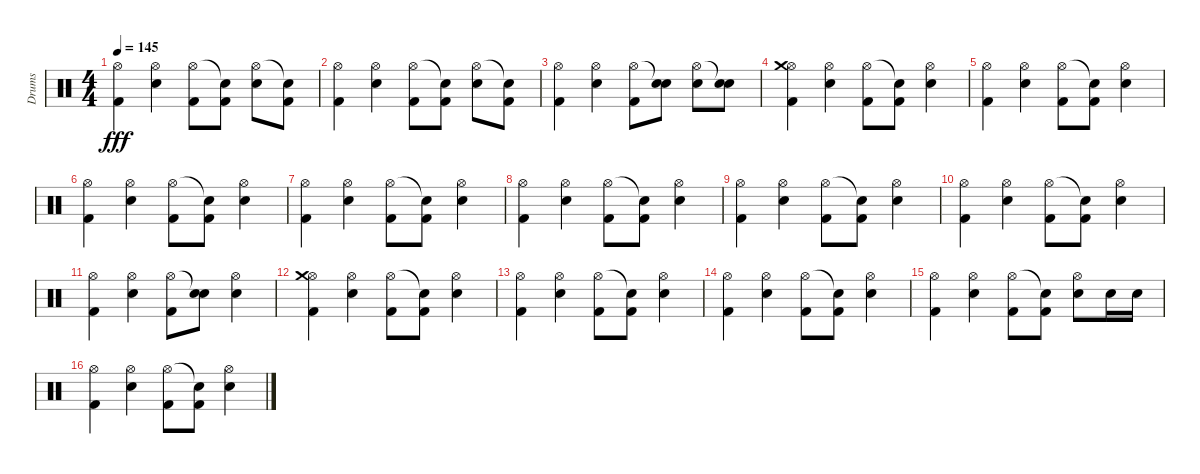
\track ("Drums" "Drums") {instrument percussion}
\staff {score}
\articulation defaults
\ts (4 4)
\tempo 145
\clef neutral
\ks c
("Hi-Hat (open)" "Kick (hit) 2").4{dy fff} ("Hi-Hat (open)" "Electric Snare (hit)").4 ("Hi-Hat (open)" "Kick (hit) 2").8 ("Snare (hit)"{t} "Kick (hit) 2").8 ("Hi-Hat (open)" "Electric Snare (hit)").8 ("Snare (hit)"{t} "Kick (hit) 2").8 |
("Hi-Hat (open)" "Kick (hit) 2").4 ("Hi-Hat (open)" "Electric Snare (hit)").4 ("Hi-Hat (open)" "Kick (hit) 2").8 ("Snare (hit)"{t} "Kick (hit) 2").8 ("Hi-Hat (open)" "Electric Snare (hit)").8 ("Snare (hit)"{t} "Kick (hit) 2").8 |
("Hi-Hat (open)" "Kick (hit) 2").4 ("Hi-Hat (open)" "Electric Snare (hit)").4 ("Hi-Hat (open)" "Kick (hit) 2").8 ("Snare (hit)"{t} "Electric Snare (hit)").8 ("Hi-Hat (open)" "Electric Snare (hit)").8 ("Snare (hit)"{t} "Electric Snare (hit)").8 |
("Hi-Hat (open)" "Kick (hit) 2" "Crash medium (hit)").4 ("Hi-Hat (open)" "Electric Snare (hit)").4 ("Hi-Hat (open)" "Kick (hit) 2").8 ("Snare (hit)"{t} "Kick (hit) 2").8 ("Hi-Hat (open)" "Electric Snare (hit)").4 |
("Hi-Hat (open)" "Kick (hit) 2").4 ("Hi-Hat (open)" "Electric Snare (hit)").4 ("Hi-Hat (open)" "Kick (hit) 2").8 ("Snare (hit)"{t} "Kick (hit) 2").8 ("Hi-Hat (open)" "Electric Snare (hit)").4 |
("Hi-Hat (open)" "Kick (hit) 2").4 ("Hi-Hat (open)" "Electric Snare (hit)").4 ("Hi-Hat (open)" "Kick (hit) 2").8 ("Snare (hit)"{t} "Kick (hit) 2").8 ("Hi-Hat (open)" "Electric Snare (hit)").4 |
("Hi-Hat (open)" "Kick (hit) 2").4 ("Hi-Hat (open)" "Electric Snare (hit)").4 ("Hi-Hat (open)" "Kick (hit) 2").8 ("Snare (hit)"{t} "Kick (hit) 2").8 ("Hi-Hat (open)" "Electric Snare (hit)").4 |
("Hi-Hat (open)" "Kick (hit) 2").4 ("Hi-Hat (open)" "Electric Snare (hit)").4 ("Hi-Hat (open)" "Kick (hit) 2").8 ("Snare (hit)"{t} "Kick (hit) 2").8 ("Hi-Hat (open)" "Electric Snare (hit)").4 |
("Hi-Hat (open)" "Kick (hit) 2").4 ("Hi-Hat (open)" "Electric Snare (hit)").4 ("Hi-Hat (open)" "Kick (hit) 2").8 ("Snare (hit)"{t} "Kick (hit) 2").8 ("Hi-Hat (open)" "Electric Snare (hit)").4 |
("Hi-Hat (open)" "Kick (hit) 2").4 ("Hi-Hat (open)" "Electric Snare (hit)").4 ("Hi-Hat (open)" "Kick (hit) 2").8 ("Snare (hit)"{t} "Kick (hit) 2").8 ("Hi-Hat (open)" "Electric Snare (hit)").4 |
("Hi-Hat (open)" "Kick (hit) 2").4 ("Hi-Hat (open)" "Electric Snare (hit)").4 ("Hi-Hat (open)" "Kick (hit) 2").8 ("Snare (hit)"{t} "Electric Snare (hit)").8 ("Hi-Hat (open)" "Electric Snare (hit)").4 |
("Hi-Hat (open)" "Kick (hit) 2" "Crash medium (hit)").4 ("Hi-Hat (open)" "Electric Snare (hit)").4 ("Hi-Hat (open)" "Kick (hit) 2").8 ("Snare (hit)"{t} "Kick (hit) 2").8 ("Hi-Hat (open)" "Electric Snare (hit)").4 |
("Hi-Hat (open)" "Kick (hit) 2").4 ("Hi-Hat (open)" "Electric Snare (hit)").4 ("Hi-Hat (open)" "Kick (hit) 2").8 ("Snare (hit)"{t} "Kick (hit) 2").8 ("Hi-Hat (open)" "Electric Snare (hit)").4 |
("Hi-Hat (open)" "Kick (hit) 2").4 ("Hi-Hat (open)" "Electric Snare (hit)").4 ("Hi-Hat (open)" "Kick (hit) 2").8 ("Snare (hit)"{t} "Kick (hit) 2").8 ("Hi-Hat (open)" "Electric Snare (hit)").4 |
("Hi-Hat (open)" "Kick (hit) 2").4 ("Hi-Hat (open)" "Electric Snare (hit)").4 ("Hi-Hat (open)" "Kick (hit) 2").8 ("Snare (hit)"{t} "Kick (hit) 2").8 ("Hi-Hat (open)" "Electric Snare (hit)").8 "Electric Snare (hit)".16 "Electric Snare (hit)".16 |
("Hi-Hat (open)" "Kick (hit) 2").4 ("Hi-Hat (open)" "Electric Snare (hit)").4 ("Hi-Hat (open)" "Kick (hit) 2").8 ("Snare (hit)"{t} "Kick (hit) 2").8 ("Hi-Hat (open)" "Electric Snare (hit)").4
